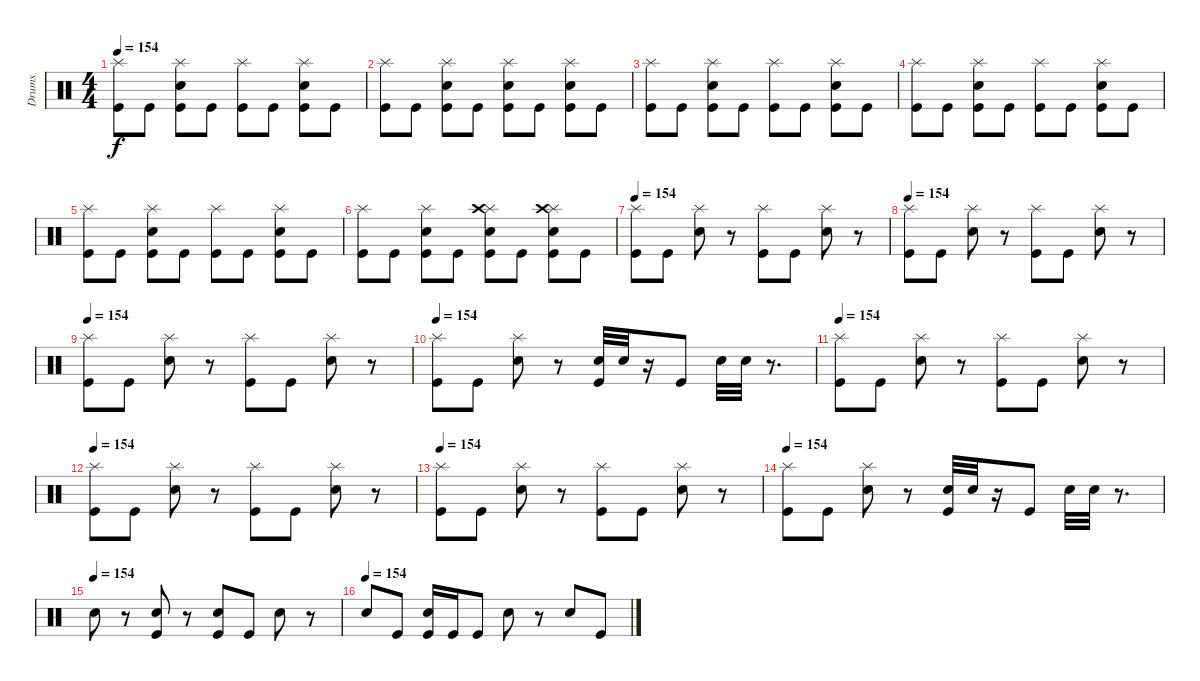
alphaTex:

\track ("Drums" "Drums") {instrument percussion}
\staff {score}
\articulation defaults
\ts (4 4)
\tempo 154
\clef neutral
\ks c
("Splash (hit)" "Kick (hit)").8{dy f} "Kick (hit)".8 ("Splash (hit)" "Snare (hit) 2" "Kick (hit)").8 "Kick (hit)".8 ("Splash (hit)" "Kick (hit)").8 "Kick (hit)".8 ("Splash (hit)" "Snare (hit) 2" "Kick (hit)").8 "Kick (hit)".8 |
("Splash (hit)" "Kick (hit)").8 "Kick (hit)".8 ("Splash (hit)" "Snare (hit) 2" "Kick (hit)").8 "Kick (hit)".8 ("Splash (hit)" "Kick (hit)" "Snare (hit) 2").8 "Kick (hit)".8 ("Splash (hit)" "Snare (hit) 2" "Kick (hit)").8 "Kick (hit)".8 |
("Splash (hit)" "Kick (hit)").8 "Kick (hit)".8 ("Splash (hit)" "Snare (hit) 2" "Kick (hit)").8 "Kick (hit)".8 ("Splash (hit)" "Kick (hit)").8 "Kick (hit)".8 ("Splash (hit)" "Snare (hit) 2" "Kick (hit)").8 "Kick (hit)".8 |
("Splash (hit)" "Kick (hit)").8 "Kick (hit)".8 ("Splash (hit)" "Snare (hit) 2" "Kick (hit)").8 "Kick (hit)".8 ("Splash (hit)" "Kick (hit)").8 "Kick (hit)".8 ("Splash (hit)" "Snare (hit) 2" "Kick (hit)").8 "Kick (hit)".8 |
("Splash (hit)" "Kick (hit)").8 "Kick (hit)".8 ("Splash (hit)" "Snare (hit) 2" "Kick (hit)").8 "Kick (hit)".8 ("Splash (hit)" "Kick (hit)").8 "Kick (hit)".8 ("Splash (hit)" "Snare (hit) 2" "Kick (hit)").8 "Kick (hit)".8 |
("Splash (hit)" "Kick (hit)").8 "Kick (hit)".8 ("Splash (hit)" "Snare (hit) 2" "Kick (hit)").8 "Kick (hit)".8 ("Splash (hit)" "Kick (hit)" "Crash high (hit)" "Snare (hit) 2").8 "Kick (hit)".8 ("Splash (hit)" "Snare (hit) 2" "Kick (hit)" "Crash high (hit)").8 "Kick (hit)".8 |
\tempo 154
("Splash (hit)" "Kick (hit)").8 "Kick (hit)".8 ("Splash (hit)" "Snare (hit) 2").8 r.8 ("Splash (hit)" "Kick (hit)").8 "Kick (hit)".8 ("Splash (hit)" "Snare (hit) 2").8 r.8 |
\tempo 154
("Splash (hit)" "Kick (hit)").8 "Kick (hit)".8 ("Splash (hit)" "Snare (hit) 2").8 r.8 ("Kick (hit)" "Splash (hit)").8 "Kick (hit)".8 ("Splash (hit)" "Snare (hit) 2").8 r.8 |
\tempo 154
("Splash (hit)" "Kick (hit)").8 "Kick (hit)".8 ("Splash (hit)" "Snare (hit) 2").8 r.8 ("Splash (hit)" "Kick (hit)").8 "Kick (hit)".8 ("Splash (hit)" "Snare (hit) 2").8 r.8 |
\tempo 154
("Splash (hit)" "Kick (hit)").8 "Kick (hit)".8 ("Splash (hit)" "Snare (hit) 2").8 r.8 ("Snare (hit) 2" "Kick (hit)").32 "Snare (hit) 2".32 r.16 "Kick (hit)".8 "Snare (hit) 2".32 "Snare (hit) 2".32 r.8{d} |
\tempo 154
("Splash (hit)" "Kick (hit)").8 "Kick (hit)".8 ("Splash (hit)" "Snare (hit) 2").8 r.8 ("Splash (hit)" "Kick (hit)").8 "Kick (hit)".8 ("Splash (hit)" "Snare (hit) 2").8 r.8 |
\tempo 154
("Splash (hit)" "Kick (hit)").8 "Kick (hit)".8 ("Splash (hit)" "Snare (hit) 2").8 r.8 ("Kick (hit)" "Splash (hit)").8 "Kick (hit)".8 ("Splash (hit)" "Snare (hit) 2").8 r.8 |
\tempo 154
("Splash (hit)" "Kick (hit)").8 "Kick (hit)".8 ("Splash (hit)" "Snare (hit) 2").8 r.8 ("Splash (hit)" "Kick (hit)").8 "Kick (hit)".8 ("Splash (hit)" "Snare (hit) 2").8 r.8 |
\tempo 154
("Splash (hit)" "Kick (hit)").8 "Kick (hit)".8 ("Splash (hit)" "Snare (hit) 2").8 r.8 ("Snare (hit) 2" "Kick (hit)").32 "Snare (hit) 2".32 r.16 "Kick (hit)".8 "Snare (hit) 2".32 "Snare (hit) 2".32 r.8{d} |
\tempo (154)
"Snare (hit) 2".8 r.8 ("Kick (hit)" "Snare (hit) 2").8 r.8 ("Kick (hit)" "Snare (hit) 2").8 "Kick (hit)".8 "Snare (hit) 2".8 r.8 |
\tempo (154)
"Snare (hit) 2".8 "Kick (hit)".8 ("Snare (hit) 2" "Kick (hit)").16 "Kick (hit)".16 "Kick (hit)".8 "Snare (hit) 2".8 r.8 "Snare (hit) 2".8 "Kick (hit)".8
